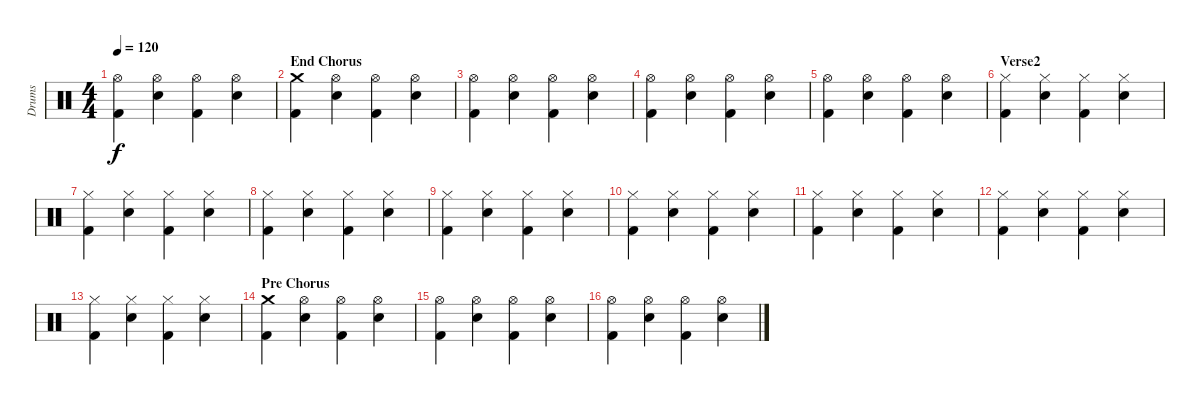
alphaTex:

\track ("Drums" "Drums") {instrument percussion}
\staff {score}
\articulation defaults
\ts (4 4)
\tempo 120
\clef neutral
\ks c
("Hi-Hat (open)" "Kick (hit) 2").4{dy f} ("Hi-Hat (open)" "Electric Snare (hit)").4 ("Hi-Hat (open)" "Kick (hit) 2").4 ("Hi-Hat (open)" "Electric Snare (hit)").4 |
\section ("" "End Chorus")
("Crash medium (hit)" "Kick (hit) 2").4 ("Hi-Hat (open)" "Electric Snare (hit)").4 ("Hi-Hat (open)" "Kick (hit) 2").4 ("Hi-Hat (open)" "Electric Snare (hit)").4 |
("Hi-Hat (open)" "Kick (hit) 2").4 ("Hi-Hat (open)" "Electric Snare (hit)").4 ("Hi-Hat (open)" "Kick (hit) 2").4 ("Hi-Hat (open)" "Electric Snare (hit)").4 |
("Hi-Hat (open)" "Kick (hit) 2").4 ("Hi-Hat (open)" "Electric Snare (hit)").4 ("Hi-Hat (open)" "Kick (hit) 2").4 ("Hi-Hat (open)" "Electric Snare (hit)").4 |
("Hi-Hat (open)" "Kick (hit) 2").4 ("Hi-Hat (open)" "Electric Snare (hit)").4 ("Hi-Hat (open)" "Kick (hit) 2").4 ("Hi-Hat (open)" "Electric Snare (hit)").4 |
\section ("" "Verse2")
("Hi-Hat (closed)" "Kick (hit) 2").4 ("Hi-Hat (closed)" "Electric Snare (hit)").4 ("Hi-Hat (closed)" "Kick (hit) 2").4 ("Hi-Hat (closed)" "Electric Snare (hit)").4 |
("Hi-Hat (closed)" "Kick (hit) 2").4 ("Hi-Hat (closed)" "Electric Snare (hit)").4 ("Hi-Hat (closed)" "Kick (hit) 2").4 ("Hi-Hat (closed)" "Electric Snare (hit)").4 |
("Hi-Hat (closed)" "Kick (hit) 2").4 ("Hi-Hat (closed)" "Electric Snare (hit)").4 ("Hi-Hat (closed)" "Kick (hit) 2").4 ("Hi-Hat (closed)" "Electric Snare (hit)").4 |
("Hi-Hat (closed)" "Kick (hit) 2").4 ("Hi-Hat (closed)" "Electric Snare (hit)").4 ("Hi-Hat (closed)" "Kick (hit) 2").4 ("Hi-Hat (closed)" "Electric Snare (hit)").4 |
("Hi-Hat (closed)" "Kick (hit) 2").4 ("Hi-Hat (closed)" "Electric Snare (hit)").4 ("Hi-Hat (closed)" "Kick (hit) 2").4 ("Hi-Hat (closed)" "Electric Snare (hit)").4 |
("Hi-Hat (closed)" "Kick (hit) 2").4 ("Hi-Hat (closed)" "Electric Snare (hit)").4 ("Hi-Hat (closed)" "Kick (hit) 2").4 ("Hi-Hat (closed)" "Electric Snare (hit)").4 |
("Hi-Hat (closed)" "Kick (hit) 2").4 ("Hi-Hat (closed)" "Electric Snare (hit)").4 ("Hi-Hat (closed)" "Kick (hit) 2").4 ("Hi-Hat (closed)" "Electric Snare (hit)").4 |
("Hi-Hat (closed)" "Kick (hit) 2").4 ("Hi-Hat (closed)" "Electric Snare (hit)").4 ("Hi-Hat (closed)" "Kick (hit) 2").4 ("Hi-Hat (closed)" "Electric Snare (hit)").4 |
\section ("" "Pre Chorus")
("Crash medium (hit)" "Kick (hit) 2").4 ("Hi-Hat (open)" "Electric Snare (hit)").4 ("Hi-Hat (open)" "Kick (hit) 2").4 ("Hi-Hat (open)" "Electric Snare (hit)").4 |
("Hi-Hat (open)" "Kick (hit) 2").4 ("Hi-Hat (open)" "Electric Snare (hit)").4 ("Hi-Hat (open)" "Kick (hit) 2").4 ("Hi-Hat (open)" "Electric Snare (hit)").4 |
("Hi-Hat (open)" "Kick (hit) 2").4 ("Hi-Hat (open)" "Electric Snare (hit)").4 ("Hi-Hat (open)" "Kick (hit) 2").4 ("Hi-Hat (open)" "Electric Snare (hit)").4
